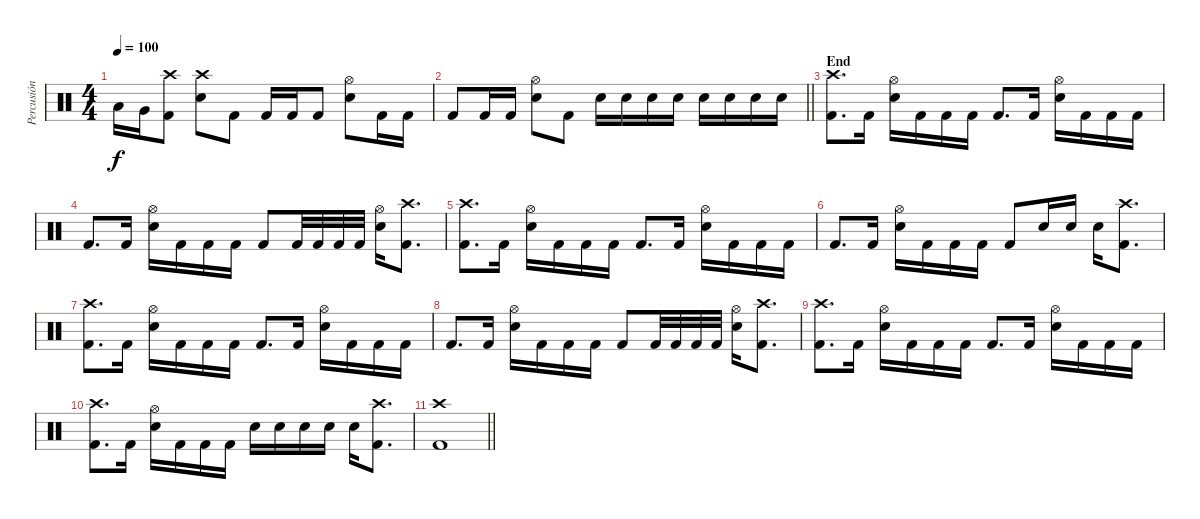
\track ("Percusión" "Percusión") {instrument percussion}
\staff {score}
\articulation defaults
\ts (4 4)
\tempo 100
\clef neutral
\ks c "Low Tom (hit)".16{dy f} "Very Low Tom (hit)".16
("Crash high (hit)" "Kick (hit) 2").8 ("Crash high (hit)" "Snare (hit) 2").8 "Kick (hit) 2".8 "Kick (hit) 2".16 "Kick (hit) 2".16 "Kick (hit) 2".8 ("Hi-Hat (open)" "Snare (hit) 2").8 "Kick (hit) 2".16 "Kick (hit) 2".16 |
\barLineRight lightlight "Kick (hit) 2".8 "Kick (hit) 2".16 "Kick (hit) 2".16
("Hi-Hat (open)" "Snare (hit) 2").8 "Kick (hit) 2".8 "Snare (hit) 2".16 "Snare (hit) 2".16 "Snare (hit) 2".16 "Snare (hit) 2".16 "Snare (hit) 2".16 "Snare (hit) 2".16 "Snare (hit) 2".16 "Snare (hit) 2".16 |
\section ("" "End")
("Crash high (hit)" "Kick (hit) 2").8{d} "Kick (hit) 2".16 ("Hi-Hat (open)" "Snare (hit) 2").16 "Kick (hit) 2".16 "Kick (hit) 2".16 "Kick (hit) 2".16 "Kick (hit) 2".8{d} "Kick (hit) 2".16 ("Hi-Hat (open)" "Snare (hit) 2").16 "Kick (hit) 2".16 "Kick (hit) 2".16 "Kick (hit) 2".16 |
"Kick (hit) 2".8{d} "Kick (hit) 2".16 ("Hi-Hat (open)" "Snare (hit) 2").16 "Kick (hit) 2".16 "Kick (hit) 2".16 "Kick (hit) 2".16 "Kick (hit) 2".8 "Kick (hit) 2".32 "Kick (hit) 2".32 "Kick (hit) 2".32 "Kick (hit) 2".32 ("Hi-Hat (open)" "Snare (hit) 2").16 ("Crash high (hit)" "Kick (hit) 2").8{d} |
("Crash high (hit)" "Kick (hit) 2").8{d} "Kick (hit) 2".16 ("Hi-Hat (open)" "Snare (hit) 2").16 "Kick (hit) 2".16 "Kick (hit) 2".16 "Kick (hit) 2".16 "Kick (hit) 2".8{d} "Kick (hit) 2".16 ("Hi-Hat (open)" "Snare (hit) 2").16 "Kick (hit) 2".16 "Kick (hit) 2".16 "Kick (hit) 2".16 |
"Kick (hit) 2".8{d} "Kick (hit) 2".16 ("Hi-Hat (open)" "Snare (hit) 2").16 "Kick (hit) 2".16 "Kick (hit) 2".16 "Kick (hit) 2".16 "Kick (hit) 2".8 "Snare (hit) 2".16 "Snare (hit) 2".16 "Snare (hit) 2".16 ("Crash high (hit)" "Kick (hit) 2").8{d} |
("Crash high (hit)" "Kick (hit) 2").8{d} "Kick (hit) 2".16 ("Hi-Hat (open)" "Snare (hit) 2").16 "Kick (hit) 2".16 "Kick (hit) 2".16 "Kick (hit) 2".16 "Kick (hit) 2".8{d} "Kick (hit) 2".16 ("Hi-Hat (open)" "Snare (hit) 2").16 "Kick (hit) 2".16 "Kick (hit) 2".16 "Kick (hit) 2".16 |
"Kick (hit) 2".8{d} "Kick (hit) 2".16 ("Hi-Hat (open)" "Snare (hit) 2").16 "Kick (hit) 2".16 "Kick (hit) 2".16 "Kick (hit) 2".16 "Kick (hit) 2".8 "Kick (hit) 2".32 "Kick (hit) 2".32 "Kick (hit) 2".32 "Kick (hit) 2".32 ("Hi-Hat (open)" "Snare (hit) 2").16 ("Crash high (hit)" "Kick (hit) 2").8{d} |
("Crash high (hit)" "Kick (hit) 2").8{d} "Kick (hit) 2".16 ("Hi-Hat (open)" "Snare (hit) 2").16 "Kick (hit) 2".16 "Kick (hit) 2".16 "Kick (hit) 2".16 "Kick (hit) 2".8{d} "Kick (hit) 2".16 ("Hi-Hat (open)" "Snare (hit) 2").16 "Kick (hit) 2".16 "Kick (hit) 2".16 "Kick (hit) 2".16 |
("Crash high (hit)" "Kick (hit) 2").8{d} "Kick (hit) 2".16 ("Hi-Hat (open)" "Snare (hit) 2").16 "Kick (hit) 2".16 "Kick (hit) 2".16 "Kick (hit) 2".16 "Snare (hit) 2".16 "Snare (hit) 2".16 "Snare (hit) 2".16 "Snare (hit) 2".16 "Snare (hit) 2".16 ("Crash high (hit)" "Kick (hit) 2").8{d} |
\barLineRight lightlight
("Crash high (hit)" "Kick (hit) 2").1
